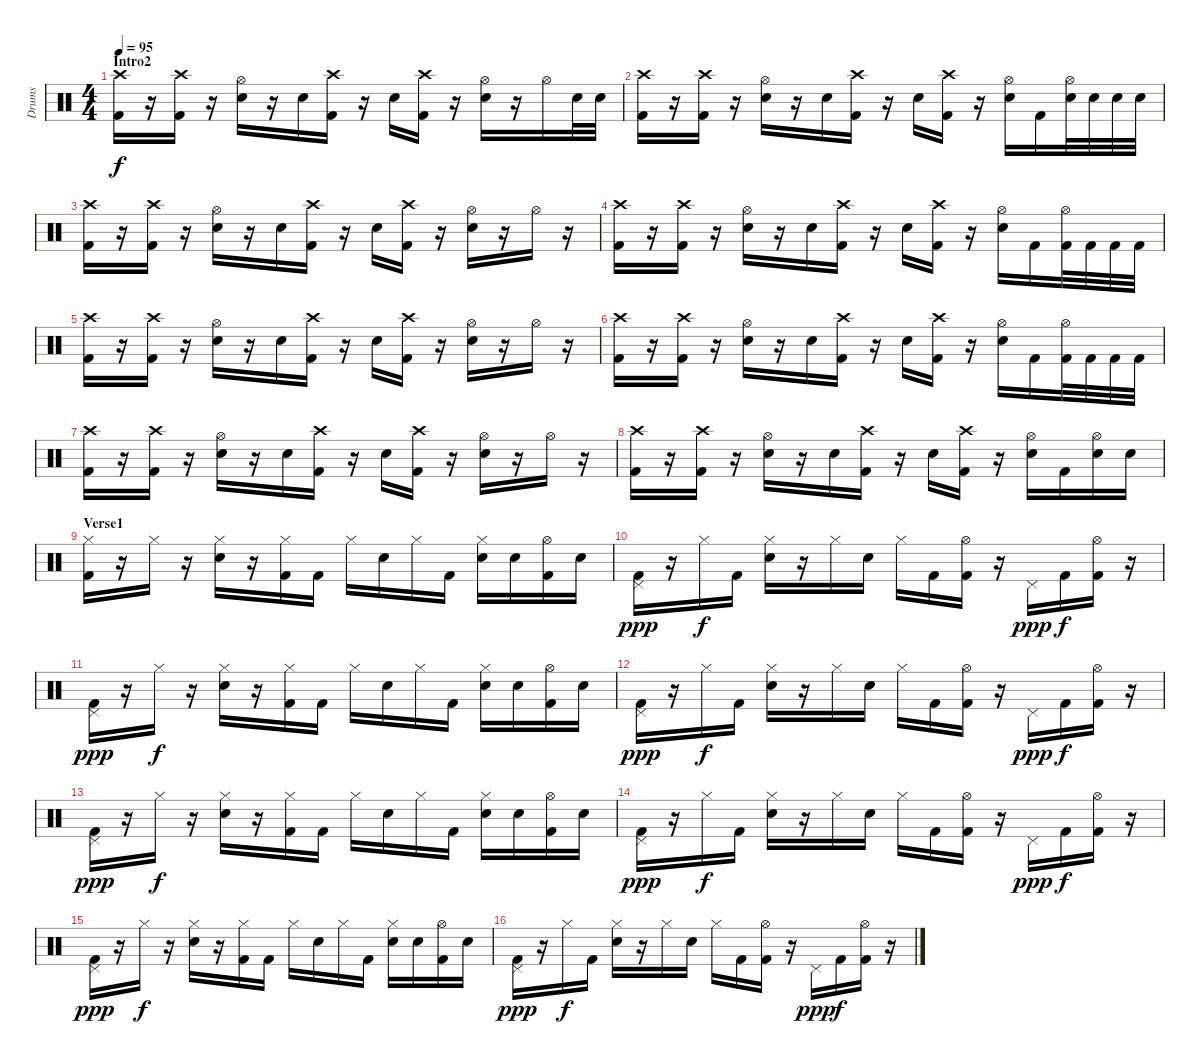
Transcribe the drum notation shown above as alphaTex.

\track ("Drums" "Drums") {instrument percussion}
\staff {score}
\articulation defaults
\ts (4 4)
\section ("" "Intro2")
\tempo 95
\clef neutral
\ks c
("Crash high (hit)" "Kick (hit) 2").16{dy f} r.16 ("Crash high (hit)" "Kick (hit) 2").16 r.16 ("Hi-Hat (open)" "Electric Snare (hit)").16 r.16 "Electric Snare (hit)".16 ("Crash high (hit)" "Kick (hit) 2").16 r.16 "Electric Snare (hit)".16 ("Crash high (hit)" "Kick (hit) 2").16 r.16 ("Hi-Hat (open)" "Electric Snare (hit)").16 r.16 "Hi-Hat (open)".16 "Electric Snare (hit)".32 "Electric Snare (hit)".32 |
("Crash high (hit)" "Kick (hit) 2").16 r.16 ("Crash high (hit)" "Kick (hit) 2").16 r.16 ("Hi-Hat (open)" "Electric Snare (hit)").16 r.16 "Electric Snare (hit)".16 ("Crash high (hit)" "Kick (hit) 2").16 r.16 "Electric Snare (hit)".16 ("Crash high (hit)" "Kick (hit) 2").16 r.16 ("Hi-Hat (open)" "Electric Snare (hit)").16 "Kick (hit) 2".16 ("Hi-Hat (open)" "Electric Snare (hit)").32 "Electric Snare (hit)".32 "Electric Snare (hit)".32 "Electric Snare (hit)".32 |
("Crash high (hit)" "Kick (hit) 2").16 r.16 ("Crash high (hit)" "Kick (hit) 2").16 r.16 ("Hi-Hat (open)" "Electric Snare (hit)").16 r.16 "Electric Snare (hit)".16 ("Crash high (hit)" "Kick (hit) 2").16 r.16 "Electric Snare (hit)".16 ("Crash high (hit)" "Kick (hit) 2").16 r.16 ("Hi-Hat (open)" "Electric Snare (hit)").16 r.16 "Hi-Hat (open)".16 r.16 |
("Crash high (hit)" "Kick (hit) 2").16 r.16 ("Crash high (hit)" "Kick (hit) 2").16 r.16 ("Hi-Hat (open)" "Electric Snare (hit)").16 r.16 "Electric Snare (hit)".16 ("Crash high (hit)" "Kick (hit) 2").16 r.16 "Electric Snare (hit)".16 ("Crash high (hit)" "Kick (hit) 2").16 r.16 ("Hi-Hat (open)" "Electric Snare (hit)").16 "Kick (hit) 2".16 ("Hi-Hat (open)" "Kick (hit) 2").32 "Kick (hit) 2".32 "Kick (hit) 2".32 "Kick (hit) 2".32 |
("Crash high (hit)" "Kick (hit) 2").16 r.16 ("Crash high (hit)" "Kick (hit) 2").16 r.16 ("Hi-Hat (open)" "Electric Snare (hit)").16 r.16 "Electric Snare (hit)".16 ("Crash high (hit)" "Kick (hit) 2").16 r.16 "Electric Snare (hit)".16 ("Crash high (hit)" "Kick (hit) 2").16 r.16 ("Hi-Hat (open)" "Electric Snare (hit)").16 r.16 "Hi-Hat (open)".16 r.16 |
("Crash high (hit)" "Kick (hit) 2").16 r.16 ("Crash high (hit)" "Kick (hit) 2").16 r.16 ("Hi-Hat (open)" "Electric Snare (hit)").16 r.16 "Electric Snare (hit)".16 ("Crash high (hit)" "Kick (hit) 2").16 r.16 "Electric Snare (hit)".16 ("Crash high (hit)" "Kick (hit) 2").16 r.16 ("Hi-Hat (open)" "Electric Snare (hit)").16 "Kick (hit) 2".16 ("Hi-Hat (open)" "Kick (hit) 2").32 "Kick (hit) 2".32 "Kick (hit) 2".32 "Kick (hit) 2".32 |
("Crash high (hit)" "Kick (hit) 2").16 r.16 ("Crash high (hit)" "Kick (hit) 2").16 r.16 ("Hi-Hat (open)" "Electric Snare (hit)").16 r.16 "Electric Snare (hit)".16 ("Crash high (hit)" "Kick (hit) 2").16 r.16 "Electric Snare (hit)".16 ("Crash high (hit)" "Kick (hit) 2").16 r.16 ("Hi-Hat (open)" "Electric Snare (hit)").16 r.16 "Hi-Hat (open)".16 r.16 |
("Crash high (hit)" "Kick (hit) 2").16 r.16 ("Crash high (hit)" "Kick (hit) 2").16 r.16 ("Hi-Hat (open)" "Electric Snare (hit)").16 r.16 "Electric Snare (hit)".16 ("Crash high (hit)" "Kick (hit) 2").16 r.16 "Electric Snare (hit)".16 ("Crash high (hit)" "Kick (hit) 2").16 r.16 ("Hi-Hat (open)" "Electric Snare (hit)").16 "Kick (hit) 2".16 ("Hi-Hat (open)" "Electric Snare (hit)").16 "Electric Snare (hit)".16 |
\section ("" "Verse1")
("Hi-Hat (closed)" "Kick (hit) 2").16 r.16 "Hi-Hat (closed)".16 r.16 ("Hi-Hat (closed)" "Electric Snare (hit)").16 r.16 ("Hi-Hat (closed)" "Kick (hit) 2").16 "Kick (hit) 2".16 "Hi-Hat (closed)".16 "Electric Snare (hit)".16 "Hi-Hat (closed)".16 "Kick (hit) 2".16 ("Hi-Hat (closed)" "Electric Snare (hit)").16 "Electric Snare (hit)".16 ("Hi-Hat (open)" "Kick (hit) 2").16 "Electric Snare (hit)".16 |
("Pedal Hi-Hat (hit)" "Kick (hit) 2").16{dy ppp} r.16 "Hi-Hat (closed)".16{dy f} "Kick (hit) 2".16 ("Hi-Hat (closed)" "Electric Snare (hit)").16 r.16 "Hi-Hat (closed)".16 "Electric Snare (hit)".16 "Hi-Hat (closed)".16 "Kick (hit) 2".16 ("Hi-Hat (open)" "Kick (hit) 2").16 r.16 "Pedal Hi-Hat (hit)".16{dy ppp} "Kick (hit) 2".16{dy f} ("Hi-Hat (open)" "Kick (hit) 2").16 r.16 |
("Pedal Hi-Hat (hit)" "Kick (hit) 2").16{dy ppp} r.16 "Hi-Hat (closed)".16{dy f} r.16 ("Hi-Hat (closed)" "Electric Snare (hit)").16 r.16 ("Hi-Hat (closed)" "Kick (hit) 2").16 "Kick (hit) 2".16 "Hi-Hat (closed)".16 "Electric Snare (hit)".16 "Hi-Hat (closed)".16 "Kick (hit) 2".16 ("Hi-Hat (closed)" "Electric Snare (hit)").16 "Electric Snare (hit)".16 ("Hi-Hat (open)" "Kick (hit) 2").16 "Electric Snare (hit)".16 |
("Pedal Hi-Hat (hit)" "Kick (hit) 2").16{dy ppp} r.16 "Hi-Hat (closed)".16{dy f} "Kick (hit) 2".16 ("Hi-Hat (closed)" "Electric Snare (hit)").16 r.16 "Hi-Hat (closed)".16 "Electric Snare (hit)".16 "Hi-Hat (closed)".16 "Kick (hit) 2".16 ("Hi-Hat (open)" "Kick (hit) 2").16 r.16 "Pedal Hi-Hat (hit)".16{dy ppp} "Kick (hit) 2".16{dy f} ("Hi-Hat (open)" "Kick (hit) 2").16 r.16 |
("Pedal Hi-Hat (hit)" "Kick (hit) 2").16{dy ppp} r.16 "Hi-Hat (closed)".16{dy f} r.16 ("Hi-Hat (closed)" "Electric Snare (hit)").16 r.16 ("Hi-Hat (closed)" "Kick (hit) 2").16 "Kick (hit) 2".16 "Hi-Hat (closed)".16 "Electric Snare (hit)".16 "Hi-Hat (closed)".16 "Kick (hit) 2".16 ("Hi-Hat (closed)" "Electric Snare (hit)").16 "Electric Snare (hit)".16 ("Hi-Hat (open)" "Kick (hit) 2").16 "Electric Snare (hit)".16 |
("Pedal Hi-Hat (hit)" "Kick (hit) 2").16{dy ppp} r.16 "Hi-Hat (closed)".16{dy f} "Kick (hit) 2".16 ("Hi-Hat (closed)" "Electric Snare (hit)").16 r.16 "Hi-Hat (closed)".16 "Electric Snare (hit)".16 "Hi-Hat (closed)".16 "Kick (hit) 2".16 ("Hi-Hat (open)" "Kick (hit) 2").16 r.16 "Pedal Hi-Hat (hit)".16{dy ppp} "Kick (hit) 2".16{dy f} ("Hi-Hat (open)" "Kick (hit) 2").16 r.16 |
("Pedal Hi-Hat (hit)" "Kick (hit) 2").16{dy ppp} r.16 "Hi-Hat (closed)".16{dy f} r.16 ("Hi-Hat (closed)" "Electric Snare (hit)").16 r.16 ("Hi-Hat (closed)" "Kick (hit) 2").16 "Kick (hit) 2".16 "Hi-Hat (closed)".16 "Electric Snare (hit)".16 "Hi-Hat (closed)".16 "Kick (hit) 2".16 ("Hi-Hat (closed)" "Electric Snare (hit)").16 "Electric Snare (hit)".16 ("Hi-Hat (open)" "Kick (hit) 2").16 "Electric Snare (hit)".16 |
("Pedal Hi-Hat (hit)" "Kick (hit) 2").16{dy ppp} r.16 "Hi-Hat (closed)".16{dy f} "Kick (hit) 2".16 ("Hi-Hat (closed)" "Electric Snare (hit)").16 r.16 "Hi-Hat (closed)".16 "Electric Snare (hit)".16 "Hi-Hat (closed)".16 "Kick (hit) 2".16 ("Hi-Hat (open)" "Kick (hit) 2").16 r.16 "Pedal Hi-Hat (hit)".16{dy ppp} "Kick (hit) 2".16{dy f} ("Hi-Hat (open)" "Kick (hit) 2").16 r.16
